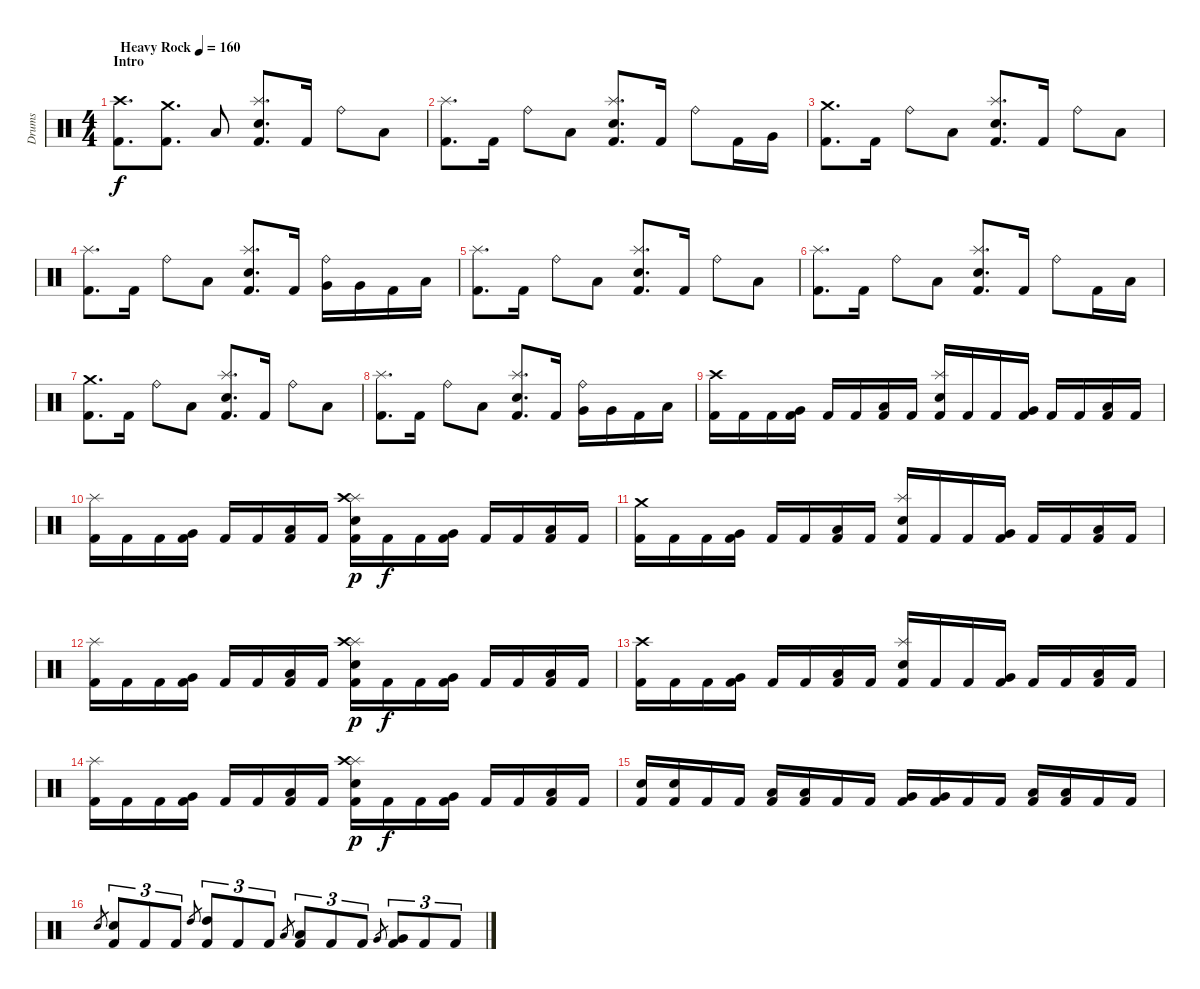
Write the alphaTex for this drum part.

\track ("Drums" "Drums") {instrument percussion}
\staff {score}
\articulation defaults
\ts (4 4)
\section ("" "Intro")
\tempo (160 "Heavy Rock")
\clef neutral
\ks c
("Crash high (hit)" "Kick (hit) 2").8{d dy f} ("Crash medium (hit)" "Kick (hit) 2").8{d} "Low Floor Tom (hit)".8 ("Splash (hit)" "Snare (hit) 2" "Kick (hit) 2").8{d} "Kick (hit) 2".16 "Ride (bell)".8 "Low Floor Tom (hit)".8 |
("Splash (hit)" "Kick (hit) 2").8{d} "Kick (hit) 2".16 "Ride (bell)".8 "Low Floor Tom (hit)".8 ("Splash (hit)" "Snare (hit) 2" "Kick (hit) 2").8{d} "Kick (hit) 2".16 "Ride (bell)".8 "Kick (hit) 2".16 "Very Low Tom (hit)".16 |
("Crash medium (hit)" "Kick (hit) 2").8{d} "Kick (hit) 2".16 "Ride (bell)".8 "Low Floor Tom (hit)".8 ("Splash (hit)" "Snare (hit) 2" "Kick (hit) 2").8{d} "Kick (hit) 2".16 "Ride (bell)".8 "Low Floor Tom (hit)".8 |
("Splash (hit)" "Kick (hit) 2").8{d} "Kick (hit) 2".16 "Ride (bell)".8 "Low Floor Tom (hit)".8 ("Splash (hit)" "Snare (hit) 2" "Kick (hit) 2").8{d} "Kick (hit) 2".16 ("Ride (bell)" "Very Low Tom (hit)").16 "Very Low Tom (hit)".16 "Kick (hit) 2".16 "Low Floor Tom (hit)".16 |
("Splash (hit)" "Kick (hit) 2").8{d} "Kick (hit) 2".16 "Ride (bell)".8 "Low Floor Tom (hit)".8 ("Splash (hit)" "Snare (hit) 2" "Kick (hit) 2").8{d} "Kick (hit) 2".16 "Ride (bell)".8 "Low Floor Tom (hit)".8 |
("Splash (hit)" "Kick (hit) 2").8{d} "Kick (hit) 2".16 "Ride (bell)".8 "Low Floor Tom (hit)".8 ("Splash (hit)" "Snare (hit) 2" "Kick (hit) 2").8{d} "Kick (hit) 2".16 "Ride (bell)".8 "Kick (hit) 2".16 "Low Floor Tom (hit)".16 |
("Crash medium (hit)" "Kick (hit) 2").8{d} "Kick (hit) 2".16 "Ride (bell)".8 "Low Floor Tom (hit)".8 ("Splash (hit)" "Snare (hit) 2" "Kick (hit) 2").8{d} "Kick (hit) 2".16 "Ride (bell)".8 "Low Floor Tom (hit)".8 |
("Splash (hit)" "Kick (hit) 2").8{d} "Kick (hit) 2".16 "Ride (bell)".8 "Low Floor Tom (hit)".8 ("Splash (hit)" "Snare (hit) 2" "Kick (hit) 2").8{d} "Kick (hit) 2".16 ("Ride (bell)" "Very Low Tom (hit)").16 "Very Low Tom (hit)".16 "Kick (hit) 2".16 "Low Floor Tom (hit)".16 |
("Crash high (hit)" "Kick (hit) 2").16 "Kick (hit) 2".16 "Kick (hit) 2".16 ("Very Low Tom (hit)" "Kick (hit) 2").16 "Kick (hit) 2".16 "Kick (hit) 2".16 ("Low Floor Tom (hit)" "Kick (hit) 2").16 "Kick (hit) 2".16 ("Splash (hit)" "Snare (hit) 2" "Kick (hit) 2").16 "Kick (hit) 2".16 "Kick (hit) 2".16 ("Very Low Tom (hit)" "Kick (hit) 2").16 "Kick (hit) 2".16 "Kick (hit) 2".16 ("Low Floor Tom (hit)" "Kick (hit) 2").16 "Kick (hit) 2".16 |
("Splash (hit)" "Kick (hit) 2").16 "Kick (hit) 2".16 "Kick (hit) 2".16 ("Very Low Tom (hit)" "Kick (hit) 2").16 "Kick (hit) 2".16 "Kick (hit) 2".16 ("Low Floor Tom (hit)" "Kick (hit) 2").16 "Kick (hit) 2".16 ("Splash (hit)" "Crash high (hit)" "Snare (hit) 2" "Kick (hit) 2").16{dy p} "Kick (hit) 2".16{dy f} "Kick (hit) 2".16 ("Very Low Tom (hit)" "Kick (hit) 2").16 "Kick (hit) 2".16 "Kick (hit) 2".16 ("Low Floor Tom (hit)" "Kick (hit) 2").16 "Kick (hit) 2".16 |
("Crash medium (hit)" "Kick (hit) 2").16 "Kick (hit) 2".16 "Kick (hit) 2".16 ("Very Low Tom (hit)" "Kick (hit) 2").16 "Kick (hit) 2".16 "Kick (hit) 2".16 ("Low Floor Tom (hit)" "Kick (hit) 2").16 "Kick (hit) 2".16 ("Splash (hit)" "Snare (hit) 2" "Kick (hit) 2").16 "Kick (hit) 2".16 "Kick (hit) 2".16 ("Very Low Tom (hit)" "Kick (hit) 2").16 "Kick (hit) 2".16 "Kick (hit) 2".16 ("Low Floor Tom (hit)" "Kick (hit) 2").16 "Kick (hit) 2".16 |
("Splash (hit)" "Kick (hit) 2").16 "Kick (hit) 2".16 "Kick (hit) 2".16 ("Very Low Tom (hit)" "Kick (hit) 2").16 "Kick (hit) 2".16 "Kick (hit) 2".16 ("Low Floor Tom (hit)" "Kick (hit) 2").16 "Kick (hit) 2".16 ("Splash (hit)" "Crash high (hit)" "Snare (hit) 2" "Kick (hit) 2").16{dy p} "Kick (hit) 2".16{dy f} "Kick (hit) 2".16 ("Very Low Tom (hit)" "Kick (hit) 2").16 "Kick (hit) 2".16 "Kick (hit) 2".16 ("Low Floor Tom (hit)" "Kick (hit) 2").16 "Kick (hit) 2".16 |
("Crash high (hit)" "Kick (hit) 2").16 "Kick (hit) 2".16 "Kick (hit) 2".16 ("Very Low Tom (hit)" "Kick (hit) 2").16 "Kick (hit) 2".16 "Kick (hit) 2".16 ("Low Floor Tom (hit)" "Kick (hit) 2").16 "Kick (hit) 2".16 ("Splash (hit)" "Snare (hit) 2" "Kick (hit) 2").16 "Kick (hit) 2".16 "Kick (hit) 2".16 ("Very Low Tom (hit)" "Kick (hit) 2").16 "Kick (hit) 2".16 "Kick (hit) 2".16 ("Low Floor Tom (hit)" "Kick (hit) 2").16 "Kick (hit) 2".16 |
("Splash (hit)" "Kick (hit) 2").16 "Kick (hit) 2".16 "Kick (hit) 2".16 ("Very Low Tom (hit)" "Kick (hit) 2").16 "Kick (hit) 2".16 "Kick (hit) 2".16 ("Low Floor Tom (hit)" "Kick (hit) 2").16 "Kick (hit) 2".16 ("Splash (hit)" "Crash high (hit)" "Snare (hit) 2" "Kick (hit) 2").16{dy p} "Kick (hit) 2".16{dy f} "Kick (hit) 2".16 ("Very Low Tom (hit)" "Kick (hit) 2").16 "Kick (hit) 2".16 "Kick (hit) 2".16 ("Low Floor Tom (hit)" "Kick (hit) 2").16 "Kick (hit) 2".16 |
("Snare (hit) 2" "Kick (hit) 2").16 ("Snare (hit) 2" "Kick (hit) 2").16 "Kick (hit) 2".16 "Kick (hit) 2".16 ("Low Tom (hit)" "Kick (hit) 2").16 ("Low Tom (hit)" "Kick (hit) 2").16 "Kick (hit) 2".16 "Kick (hit) 2".16 ("Very Low Tom (hit)" "Kick (hit) 2").16 ("Very Low Tom (hit)" "Kick (hit) 2").16 "Kick (hit) 2".16 "Kick (hit) 2".16 ("Low Floor Tom (hit)" "Kick (hit) 2").16 ("Low Floor Tom (hit)" "Kick (hit) 2").16 "Kick (hit) 2".16 "Kick (hit) 2".16 |
"Snare (hit) 2".8{gr} ("Snare (hit) 2" "Kick (hit) 2").8{tu (3 2)} "Kick (hit) 2".8{tu (3 2)} "Kick (hit) 2".8{tu (3 2)} "High Tom (hit)".8{gr} ("High Tom (hit)" "Kick (hit) 2").8{tu (3 2)} "Kick (hit) 2".8{tu (3 2)} "Kick (hit) 2".8{tu (3 2)} "Low Tom (hit)".8{gr} ("Low Tom (hit)" "Kick (hit) 2").8{tu (3 2)} "Kick (hit) 2".8{tu (3 2)} "Kick (hit) 2".8{tu (3 2)} "Very Low Tom (hit)".8{gr} ("Very Low Tom (hit)" "Kick (hit) 2").8{tu (3 2)} "Kick (hit) 2".8{tu (3 2)} "Kick (hit) 2".8{tu (3 2)}
